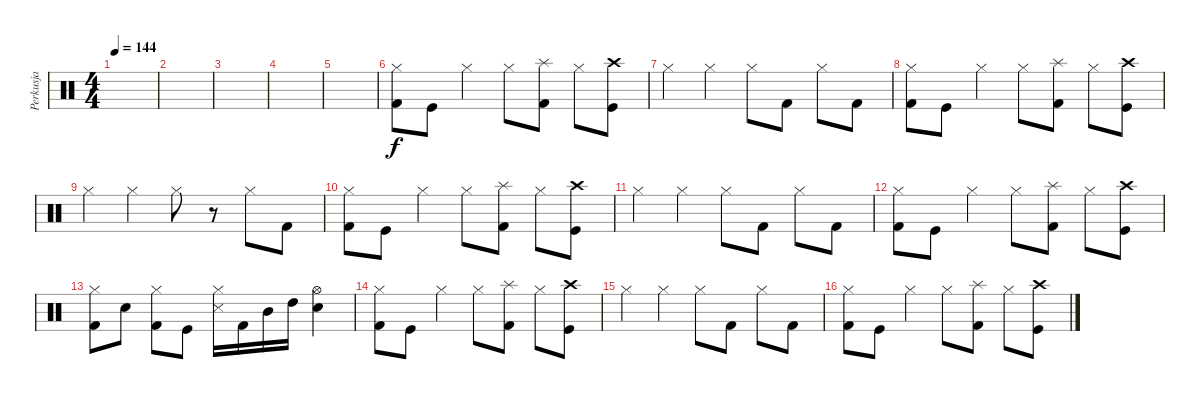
\track ("Perkusja" "Perkusja") {instrument percussion}
\staff {score}
\articulation defaults
\ts (4 4)
\tempo 144
\clef neutral
\ks c
|
|
|
|
|
("Hi-Hat (closed)" "Kick (hit) 2").8 "Kick (hit)".8 "Hi-Hat (closed)".4 "Hi-Hat (closed)".8 ("Splash (hit)" "Kick (hit) 2").8 "Hi-Hat (closed)".8 ("Crash high (hit)" "Kick (hit)").8 |
"Hi-Hat (closed)".4 "Hi-Hat (closed)".4 "Hi-Hat (closed)".8 "Kick (hit) 2".8 "Hi-Hat (closed)".8 "Kick (hit) 2".8 |
("Hi-Hat (closed)" "Kick (hit) 2").8 "Kick (hit)".8 "Hi-Hat (closed)".4 "Hi-Hat (closed)".8 ("Splash (hit)" "Kick (hit) 2").8 "Hi-Hat (closed)".8 ("Crash high (hit)" "Kick (hit)").8 |
"Hi-Hat (closed)".4 "Hi-Hat (closed)".4 "Hi-Hat (closed)".8 r.8 "Hi-Hat (closed)".8 "Kick (hit) 2".8 |
("Hi-Hat (closed)" "Kick (hit) 2").8 "Kick (hit)".8 "Hi-Hat (closed)".4 "Hi-Hat (closed)".8 ("Splash (hit)" "Kick (hit) 2").8 "Hi-Hat (closed)".8 ("Crash high (hit)" "Kick (hit)").8 |
"Hi-Hat (closed)".4 "Hi-Hat (closed)".4 "Hi-Hat (closed)".8 "Kick (hit) 2".8 "Hi-Hat (closed)".8 "Kick (hit) 2".8 |
("Hi-Hat (closed)" "Kick (hit) 2").8 "Kick (hit)".8 "Hi-Hat (closed)".4 "Hi-Hat (closed)".8 ("Splash (hit)" "Kick (hit) 2").8 "Hi-Hat (closed)".8 ("Crash high (hit)" "Kick (hit)").8 |
("Hi-Hat (closed)" "Kick (hit) 2").8 "Snare (hit) 2".8 ("Hi-Hat (closed)" "Kick (hit) 2").8 "Kick (hit)".8 ("Hi-Hat (closed)" "Snare (side stick) 3").16 "Kick (hit) 2".16 "Mid Tom (hit)".16 "High Tom (hit)".16 ("Hi-Hat (open)" "Snare (hit) 2").4 |
("Hi-Hat (closed)" "Kick (hit) 2").8 "Kick (hit)".8 "Hi-Hat (closed)".4 "Hi-Hat (closed)".8 ("Splash (hit)" "Kick (hit) 2").8 "Hi-Hat (closed)".8 ("Crash high (hit)" "Kick (hit)").8 |
"Hi-Hat (closed)".4 "Hi-Hat (closed)".4 "Hi-Hat (closed)".8 "Kick (hit) 2".8 "Hi-Hat (closed)".8 "Kick (hit) 2".8 |
("Hi-Hat (closed)" "Kick (hit) 2").8 "Kick (hit)".8 "Hi-Hat (closed)".4 "Hi-Hat (closed)".8 ("Splash (hit)" "Kick (hit) 2").8 "Hi-Hat (closed)".8 ("Crash high (hit)" "Kick (hit)").8
